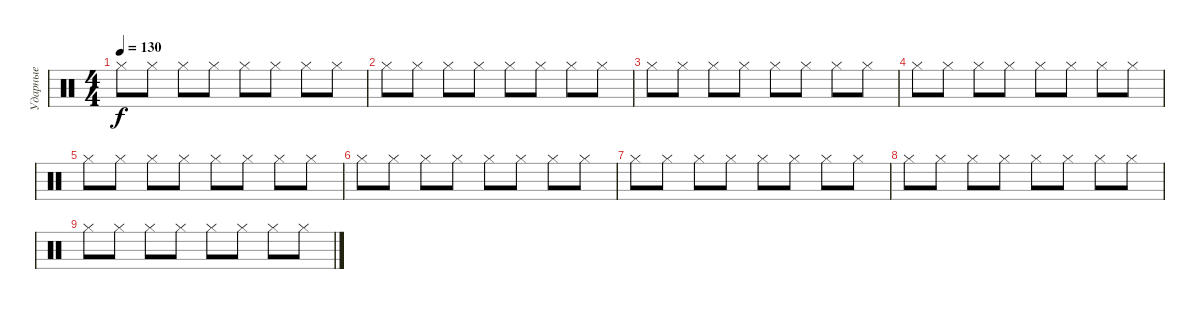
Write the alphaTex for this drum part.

\track ("Ударные" "Ударные") {instrument percussion}
\staff {score}
\articulation defaults
\ts (4 4)
\tempo 130
\clef neutral
\ks c "Hi-Hat (closed)".8{dy f} "Hi-Hat (closed)".8 "Hi-Hat (closed)".8 "Hi-Hat (closed)".8 "Hi-Hat (closed)".8 "Hi-Hat (closed)".8 "Hi-Hat (closed)".8 "Hi-Hat (closed)".8
|
"Hi-Hat (closed)".8 "Hi-Hat (closed)".8 "Hi-Hat (closed)".8 "Hi-Hat (closed)".8 "Hi-Hat (closed)".8 "Hi-Hat (closed)".8 "Hi-Hat (closed)".8 "Hi-Hat (closed)".8 |
"Hi-Hat (closed)".8 "Hi-Hat (closed)".8 "Hi-Hat (closed)".8 "Hi-Hat (closed)".8 "Hi-Hat (closed)".8 "Hi-Hat (closed)".8 "Hi-Hat (closed)".8 "Hi-Hat (closed)".8 |
"Hi-Hat (closed)".8 "Hi-Hat (closed)".8 "Hi-Hat (closed)".8 "Hi-Hat (closed)".8 "Hi-Hat (closed)".8 "Hi-Hat (closed)".8 "Hi-Hat (closed)".8 "Hi-Hat (closed)".8 |
"Hi-Hat (closed)".8 "Hi-Hat (closed)".8 "Hi-Hat (closed)".8 "Hi-Hat (closed)".8 "Hi-Hat (closed)".8 "Hi-Hat (closed)".8 "Hi-Hat (closed)".8 "Hi-Hat (closed)".8 |
"Hi-Hat (closed)".8 "Hi-Hat (closed)".8 "Hi-Hat (closed)".8 "Hi-Hat (closed)".8 "Hi-Hat (closed)".8 "Hi-Hat (closed)".8 "Hi-Hat (closed)".8 "Hi-Hat (closed)".8 |
"Hi-Hat (closed)".8 "Hi-Hat (closed)".8 "Hi-Hat (closed)".8 "Hi-Hat (closed)".8 "Hi-Hat (closed)".8 "Hi-Hat (closed)".8 "Hi-Hat (closed)".8 "Hi-Hat (closed)".8 |
"Hi-Hat (closed)".8 "Hi-Hat (closed)".8 "Hi-Hat (closed)".8 "Hi-Hat (closed)".8 "Hi-Hat (closed)".8 "Hi-Hat (closed)".8 "Hi-Hat (closed)".8 "Hi-Hat (closed)".8 |
"Hi-Hat (closed)".8 "Hi-Hat (closed)".8 "Hi-Hat (closed)".8 "Hi-Hat (closed)".8 "Hi-Hat (closed)".8 "Hi-Hat (closed)".8 "Hi-Hat (closed)".8 "Hi-Hat (closed)".8
